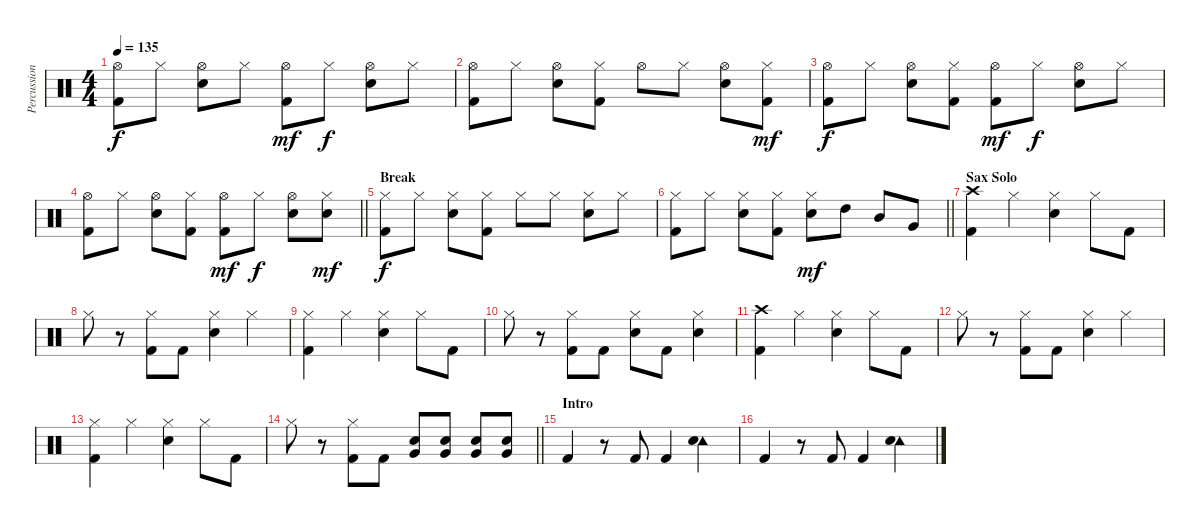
\track ("Percussion" "Percussion") {instrument percussion}
\staff {score}
\articulation defaults
\ts (4 4)
\tempo 135
\clef neutral
\ks c
("Hi-Hat (open)" "Kick (hit) 2").8{dy f} "Hi-Hat (closed)".8 ("Hi-Hat (open)" "Electric Snare (hit)").8 "Hi-Hat (closed)".8 ("Hi-Hat (open)" "Kick (hit) 2").8{dy mf} "Hi-Hat (closed)".8{dy f} ("Hi-Hat (open)" "Electric Snare (hit)").8 "Hi-Hat (closed)".8 |
("Hi-Hat (open)" "Kick (hit) 2").8 "Hi-Hat (closed)".8 ("Hi-Hat (open)" "Electric Snare (hit)").8 ("Hi-Hat (closed)" "Kick (hit) 2").8 "Hi-Hat (open)".8 "Hi-Hat (closed)".8 ("Hi-Hat (open)" "Electric Snare (hit)").8 ("Hi-Hat (closed)" "Kick (hit) 2").8{dy mf} |
("Hi-Hat (open)" "Kick (hit) 2").8{dy f} "Hi-Hat (closed)".8 ("Hi-Hat (open)" "Electric Snare (hit)").8 ("Hi-Hat (closed)" "Kick (hit) 2").8 ("Hi-Hat (open)" "Kick (hit) 2").8{dy mf} "Hi-Hat (closed)".8{dy f} ("Hi-Hat (open)" "Electric Snare (hit)").8 "Hi-Hat (closed)".8 |
\barLineRight lightlight
("Hi-Hat (open)" "Kick (hit) 2").8 "Hi-Hat (closed)".8 ("Hi-Hat (open)" "Electric Snare (hit)").8 ("Hi-Hat (closed)" "Kick (hit) 2").8 ("Hi-Hat (open)" "Kick (hit) 2").8{dy mf} "Hi-Hat (closed)".8{dy f} ("Hi-Hat (open)" "Electric Snare (hit)").8 ("Hi-Hat (closed)" "Electric Snare (hit)").8{dy mf} |
\section ("" "Break")
("Hi-Hat (closed)" "Kick (hit) 2").8{dy f} "Hi-Hat (closed)".8 ("Hi-Hat (closed)" "Electric Snare (hit)").8 ("Hi-Hat (closed)" "Kick (hit) 2").8 "Hi-Hat (closed)".8 "Hi-Hat (closed)".8 ("Hi-Hat (closed)" "Electric Snare (hit)").8 "Hi-Hat (closed)".8 |
\barLineRight lightlight
("Hi-Hat (closed)" "Kick (hit) 2").8 "Hi-Hat (closed)".8 ("Hi-Hat (closed)" "Electric Snare (hit)").8 ("Hi-Hat (closed)" "Kick (hit) 2").8 ("Hi-Hat (closed)" "Electric Snare (hit)").8{dy mf} "High Tom (hit)".8 "Mid Tom (hit)".8 "Very Low Tom (hit)".8 |
\section ("" "Sax Solo")
("Crash high (hit)" "Kick (hit) 2").4 "Hi-Hat (closed)".4 ("Hi-Hat (closed)" "Electric Snare (hit)").4 "Hi-Hat (closed)".8 "Kick (hit) 2".8 |
"Hi-Hat (closed)".8 r.8 ("Hi-Hat (closed)" "Kick (hit) 2").8 "Kick (hit) 2".8 ("Hi-Hat (closed)" "Electric Snare (hit)").4 "Hi-Hat (closed)".4 |
("Hi-Hat (closed)" "Kick (hit) 2").4 "Hi-Hat (closed)".4 ("Hi-Hat (closed)" "Electric Snare (hit)").4 "Hi-Hat (closed)".8 "Kick (hit) 2".8 |
"Hi-Hat (closed)".8 r.8 ("Hi-Hat (closed)" "Kick (hit) 2").8 "Kick (hit) 2".8 ("Hi-Hat (closed)" "Electric Snare (hit)").8 "Kick (hit) 2".8 ("Hi-Hat (closed)" "Electric Snare (hit)").4 |
("Crash high (hit)" "Kick (hit) 2").4 "Hi-Hat (closed)".4 ("Hi-Hat (closed)" "Electric Snare (hit)").4 "Hi-Hat (closed)".8 "Kick (hit) 2".8 |
"Hi-Hat (closed)".8 r.8 ("Hi-Hat (closed)" "Kick (hit) 2").8 "Kick (hit) 2".8 ("Hi-Hat (closed)" "Electric Snare (hit)").4 "Hi-Hat (closed)".4 |
("Hi-Hat (closed)" "Kick (hit) 2").4 "Hi-Hat (closed)".4 ("Hi-Hat (closed)" "Electric Snare (hit)").4 "Hi-Hat (closed)".8 "Kick (hit) 2".8 |
\barLineRight lightlight "Hi-Hat (closed)".8
r.8 ("Hi-Hat (closed)" "Kick (hit) 2").8 "Kick (hit) 2".8 ("Very Low Tom (hit)" "Electric Snare (hit)").8 ("Very Low Tom (hit)" "Electric Snare (hit)").8 ("Very Low Tom (hit)" "Electric Snare (hit)").8 ("Very Low Tom (hit)" "Electric Snare (hit)").8 |
\section ("" "Intro")
"Kick (hit) 2".4 r.8 "Kick (hit) 2".8 "Kick (hit) 2".4 ("Tambourine (hit)" "Electric Snare (hit)").4 |
"Kick (hit) 2".4 r.8 "Kick (hit) 2".8 "Kick (hit) 2".4 ("Tambourine (hit)" "Electric Snare (hit)").4
